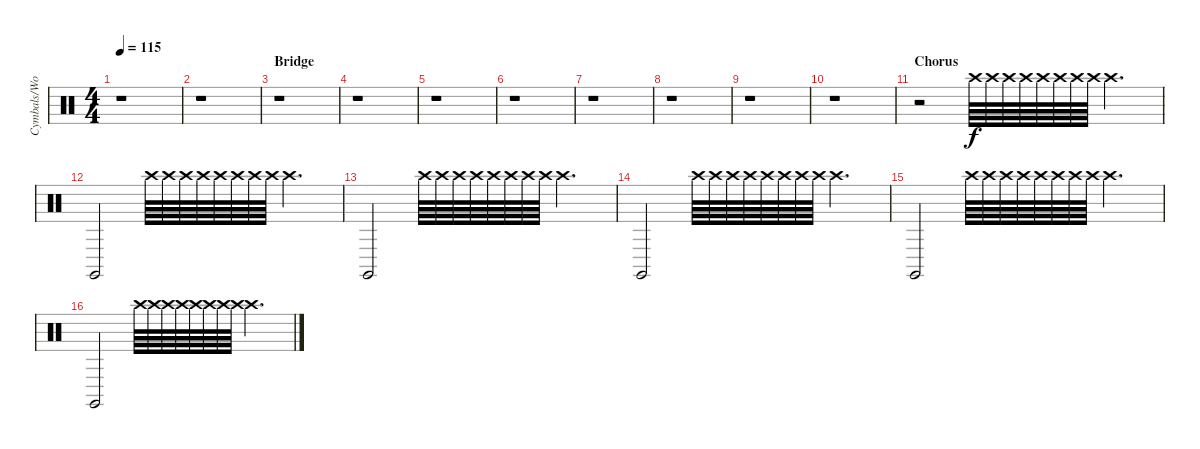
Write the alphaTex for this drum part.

\track ("Cymbals/Woodblock" "Cymbals/Wo") {instrument percussion}
\staff {score}
\articulation defaults
\ts (4 4)
\tempo 115
\clef neutral
\ks c
r.1{dy f} |
r.1 |
\section ("" "Bridge")
r.1 |
r.1 |
r.1 |
r.1 |
r.1 |
r.1 |
r.1 |
r.1 |
\section ("" "Chorus")
r.2 "Crash high (hit)".64 "Crash high (hit)".64 "Crash high (hit)".64 "Crash high (hit)".64 "Crash high (hit)".64 "Crash high (hit)".64 "Crash high (hit)".64 "Crash high (hit)".64 "Crash high (hit)".4{d} |
"Claves (hit)".2 "Crash high (hit)".64 "Crash high (hit)".64 "Crash high (hit)".64 "Crash high (hit)".64 "Crash high (hit)".64 "Crash high (hit)".64 "Crash high (hit)".64 "Crash high (hit)".64 "Crash high (hit)".4{d} |
"Claves (hit)".2 "Crash high (hit)".64 "Crash high (hit)".64 "Crash high (hit)".64 "Crash high (hit)".64 "Crash high (hit)".64 "Crash high (hit)".64 "Crash high (hit)".64 "Crash high (hit)".64 "Crash high (hit)".4{d} |
"Claves (hit)".2 "Crash high (hit)".64 "Crash high (hit)".64 "Crash high (hit)".64 "Crash high (hit)".64 "Crash high (hit)".64 "Crash high (hit)".64 "Crash high (hit)".64 "Crash high (hit)".64 "Crash high (hit)".4{d} |
"Claves (hit)".2 "Crash high (hit)".64 "Crash high (hit)".64 "Crash high (hit)".64 "Crash high (hit)".64 "Crash high (hit)".64 "Crash high (hit)".64 "Crash high (hit)".64 "Crash high (hit)".64 "Crash high (hit)".4{d} |
"Claves (hit)".2 "Crash high (hit)".64 "Crash high (hit)".64 "Crash high (hit)".64 "Crash high (hit)".64 "Crash high (hit)".64 "Crash high (hit)".64 "Crash high (hit)".64 "Crash high (hit)".64 "Crash high (hit)".4{d}
